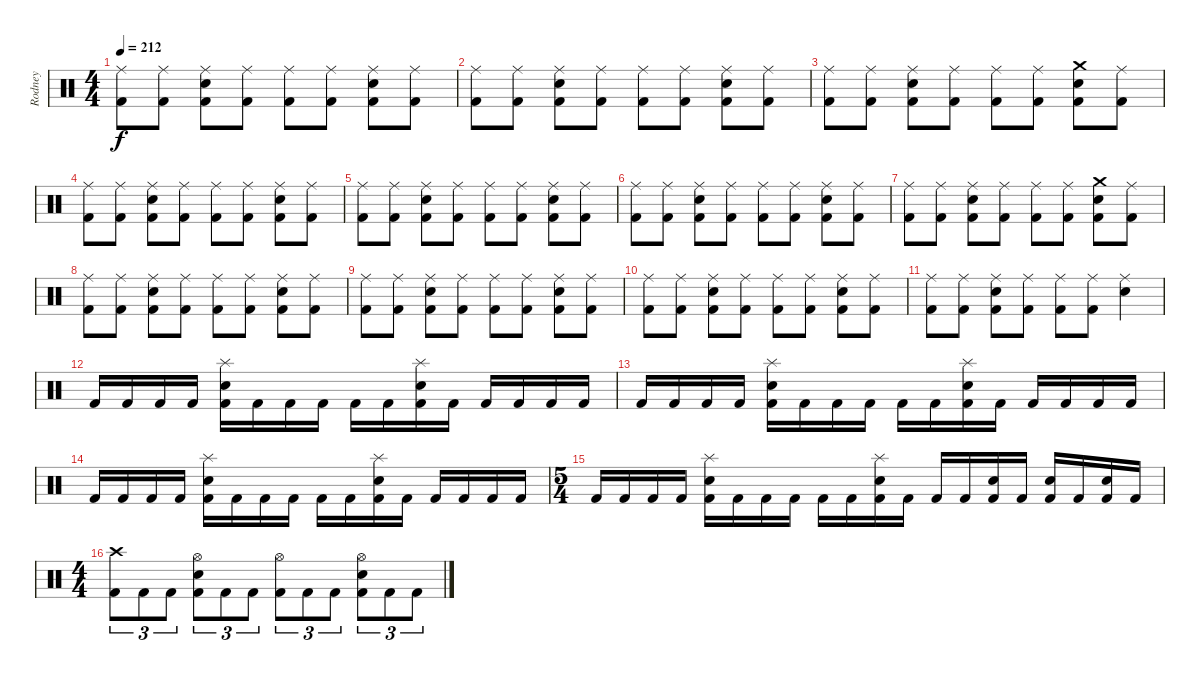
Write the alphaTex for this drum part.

\track ("Rodney" "Rodney") {instrument percussion}
\staff {score}
\articulation defaults
\ts (4 4)
\tempo 212
\clef neutral
\ks c
("Ride (middle)" "Kick (hit) 2").8{dy f} ("Ride (middle)" "Kick (hit) 2").8 ("Ride (middle)" "Snare (hit) 2" "Kick (hit) 2").8 ("Ride (middle)" "Kick (hit) 2").8 ("Ride (middle)" "Kick (hit) 2").8 ("Ride (middle)" "Kick (hit) 2").8 ("Ride (middle)" "Snare (hit) 2" "Kick (hit) 2").8 ("Ride (middle)" "Kick (hit) 2").8 |
("Ride (middle)" "Kick (hit) 2").8 ("Ride (middle)" "Kick (hit) 2").8 ("Ride (middle)" "Snare (hit) 2" "Kick (hit) 2").8 ("Ride (middle)" "Kick (hit) 2").8 ("Ride (middle)" "Kick (hit) 2").8 ("Ride (middle)" "Kick (hit) 2").8 ("Ride (middle)" "Snare (hit) 2" "Kick (hit) 2").8 ("Ride (middle)" "Kick (hit) 2").8 |
("Ride (middle)" "Kick (hit) 2").8 ("Ride (middle)" "Kick (hit) 2").8 ("Ride (middle)" "Snare (hit) 2" "Kick (hit) 2").8 ("Ride (middle)" "Kick (hit) 2").8 ("Ride (middle)" "Kick (hit) 2").8 ("Ride (middle)" "Kick (hit) 2").8 ("Crash medium (hit)" "Snare (hit) 2" "Kick (hit) 2").8 ("Ride (middle)" "Kick (hit) 2").8 |
("Ride (middle)" "Kick (hit) 2").8 ("Ride (middle)" "Kick (hit) 2").8 ("Ride (middle)" "Snare (hit) 2" "Kick (hit) 2").8 ("Ride (middle)" "Kick (hit) 2").8 ("Ride (middle)" "Kick (hit) 2").8 ("Ride (middle)" "Kick (hit) 2").8 ("Ride (middle)" "Snare (hit) 2" "Kick (hit) 2").8 ("Ride (middle)" "Kick (hit) 2").8 |
("Ride (middle)" "Kick (hit) 2").8 ("Ride (middle)" "Kick (hit) 2").8 ("Ride (middle)" "Snare (hit) 2" "Kick (hit) 2").8 ("Ride (middle)" "Kick (hit) 2").8 ("Ride (middle)" "Kick (hit) 2").8 ("Ride (middle)" "Kick (hit) 2").8 ("Ride (middle)" "Snare (hit) 2" "Kick (hit) 2").8 ("Ride (middle)" "Kick (hit) 2").8 |
("Ride (middle)" "Kick (hit) 2").8 ("Ride (middle)" "Kick (hit) 2").8 ("Ride (middle)" "Snare (hit) 2" "Kick (hit) 2").8 ("Ride (middle)" "Kick (hit) 2").8 ("Ride (middle)" "Kick (hit) 2").8 ("Ride (middle)" "Kick (hit) 2").8 ("Ride (middle)" "Snare (hit) 2" "Kick (hit) 2").8 ("Ride (middle)" "Kick (hit) 2").8 |
("Ride (middle)" "Kick (hit) 2").8 ("Ride (middle)" "Kick (hit) 2").8 ("Ride (middle)" "Snare (hit) 2" "Kick (hit) 2").8 ("Ride (middle)" "Kick (hit) 2").8 ("Ride (middle)" "Kick (hit) 2").8 ("Ride (middle)" "Kick (hit) 2").8 ("Crash medium (hit)" "Snare (hit) 2" "Kick (hit) 2").8 ("Ride (middle)" "Kick (hit) 2").8 |
("Ride (middle)" "Kick (hit) 2").8 ("Ride (middle)" "Kick (hit) 2").8 ("Ride (middle)" "Snare (hit) 2" "Kick (hit) 2").8 ("Ride (middle)" "Kick (hit) 2").8 ("Ride (middle)" "Kick (hit) 2").8 ("Ride (middle)" "Kick (hit) 2").8 ("Ride (middle)" "Snare (hit) 2" "Kick (hit) 2").8 ("Ride (middle)" "Kick (hit) 2").8 |
("Ride (middle)" "Kick (hit) 2").8 ("Ride (middle)" "Kick (hit) 2").8 ("Ride (middle)" "Snare (hit) 2" "Kick (hit) 2").8 ("Ride (middle)" "Kick (hit) 2").8 ("Ride (middle)" "Kick (hit) 2").8 ("Ride (middle)" "Kick (hit) 2").8 ("Ride (middle)" "Snare (hit) 2" "Kick (hit) 2").8 ("Ride (middle)" "Kick (hit) 2").8 |
("Ride (middle)" "Kick (hit) 2").8 ("Ride (middle)" "Kick (hit) 2").8 ("Ride (middle)" "Snare (hit) 2" "Kick (hit) 2").8 ("Ride (middle)" "Kick (hit) 2").8 ("Ride (middle)" "Kick (hit) 2").8 ("Ride (middle)" "Kick (hit) 2").8 ("Ride (middle)" "Snare (hit) 2" "Kick (hit) 2").8 ("Ride (middle)" "Kick (hit) 2").8 |
("Ride (middle)" "Kick (hit) 2").8 ("Ride (middle)" "Kick (hit) 2").8 ("Ride (middle)" "Snare (hit) 2" "Kick (hit) 2").8 ("Ride (middle)" "Kick (hit) 2").8 ("Ride (middle)" "Kick (hit) 2").8 ("Ride (middle)" "Kick (hit) 2").8 ("Ride (middle)" "Snare (hit) 2").4 |
"Kick (hit) 2".16 "Kick (hit) 2".16 "Kick (hit) 2".16 "Kick (hit) 2".16 ("Splash (hit)" "Snare (hit) 2" "Kick (hit) 2").16 "Kick (hit) 2".16 "Kick (hit) 2".16 "Kick (hit) 2".16 "Kick (hit) 2".16 "Kick (hit) 2".16 ("Splash (hit)" "Snare (hit) 2" "Kick (hit) 2").16 "Kick (hit) 2".16 "Kick (hit) 2".16 "Kick (hit) 2".16 "Kick (hit) 2".16 "Kick (hit) 2".16 |
"Kick (hit) 2".16 "Kick (hit) 2".16 "Kick (hit) 2".16 "Kick (hit) 2".16 ("Splash (hit)" "Snare (hit) 2" "Kick (hit) 2").16 "Kick (hit) 2".16 "Kick (hit) 2".16 "Kick (hit) 2".16 "Kick (hit) 2".16 "Kick (hit) 2".16 ("Splash (hit)" "Snare (hit) 2" "Kick (hit) 2").16 "Kick (hit) 2".16 "Kick (hit) 2".16 "Kick (hit) 2".16 "Kick (hit) 2".16 "Kick (hit) 2".16 |
"Kick (hit) 2".16 "Kick (hit) 2".16 "Kick (hit) 2".16 "Kick (hit) 2".16 ("Splash (hit)" "Snare (hit) 2" "Kick (hit) 2").16 "Kick (hit) 2".16 "Kick (hit) 2".16 "Kick (hit) 2".16 "Kick (hit) 2".16 "Kick (hit) 2".16 ("Splash (hit)" "Snare (hit) 2" "Kick (hit) 2").16 "Kick (hit) 2".16 "Kick (hit) 2".16 "Kick (hit) 2".16 "Kick (hit) 2".16 "Kick (hit) 2".16 |
\ts (5 4)
"Kick (hit) 2".16 "Kick (hit) 2".16 "Kick (hit) 2".16 "Kick (hit) 2".16 ("Splash (hit)" "Snare (hit) 2" "Kick (hit) 2").16 "Kick (hit) 2".16 "Kick (hit) 2".16 "Kick (hit) 2".16 "Kick (hit) 2".16 "Kick (hit) 2".16 ("Splash (hit)" "Snare (hit) 2" "Kick (hit) 2").16 "Kick (hit) 2".16 "Kick (hit) 2".16 "Kick (hit) 2".16 ("Snare (hit) 2" "Kick (hit) 2").16 "Kick (hit) 2".16 ("Snare (hit) 2" "Kick (hit) 2").16 "Kick (hit) 2".16 ("Snare (hit) 2" "Kick (hit) 2").16 "Kick (hit) 2".16 |
\ts (4 4)
("Crash high (hit)" "Kick (hit) 2").8{tu (3 2)} "Kick (hit) 2".8{tu (3 2)} "Kick (hit) 2".8{tu (3 2)} ("Hi-Hat (open)" "Snare (hit) 2" "Kick (hit) 2").8{tu (3 2)} "Kick (hit) 2".8{tu (3 2)} "Kick (hit) 2".8{tu (3 2)} ("Hi-Hat (open)" "Kick (hit) 2").8{tu (3 2)} "Kick (hit) 2".8{tu (3 2)} "Kick (hit) 2".8{tu (3 2)} ("Hi-Hat (open)" "Snare (hit) 2" "Kick (hit) 2").8{tu (3 2)} "Kick (hit) 2".8{tu (3 2)} "Kick (hit) 2".8{tu (3 2)}
